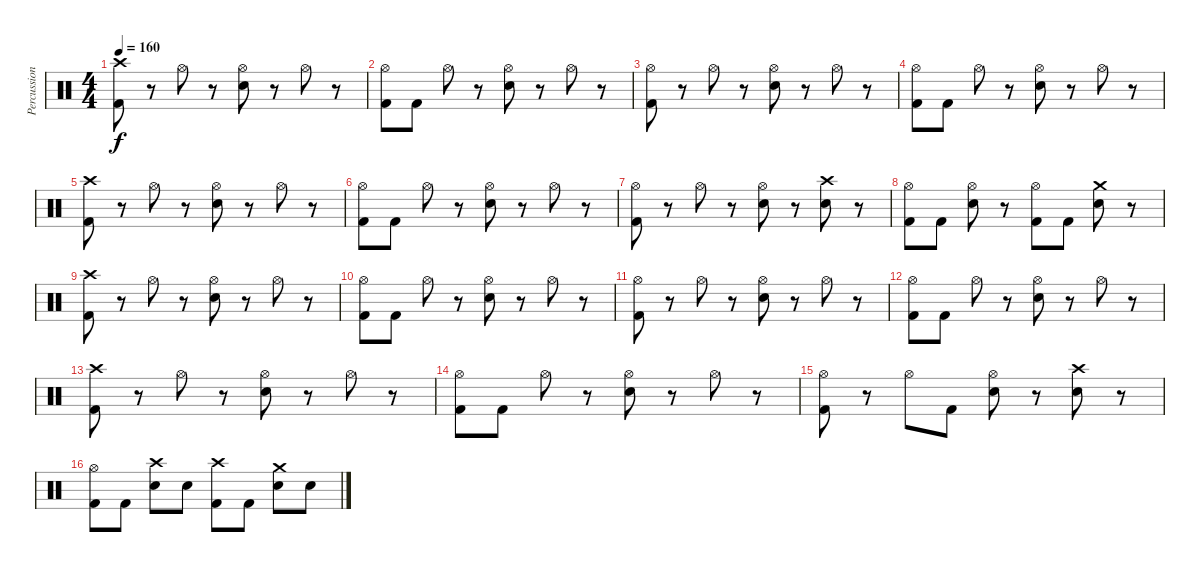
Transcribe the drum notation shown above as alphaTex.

\track ("Percussion" "Percussion") {instrument percussion}
\staff {score}
\articulation defaults
\ts (4 4)
\tempo 160
\clef neutral
\ks c
("Crash high (hit)" "Kick (hit) 2").8{dy f} r.8 "Hi-Hat (open)".8 r.8 ("Hi-Hat (open)" "Electric Snare (hit)").8 r.8 "Hi-Hat (open)".8 r.8 |
("Hi-Hat (open)" "Kick (hit) 2").8 "Kick (hit) 2".8 "Hi-Hat (open)".8 r.8 ("Hi-Hat (open)" "Electric Snare (hit)").8 r.8 "Hi-Hat (open)".8 r.8 |
("Hi-Hat (open)" "Kick (hit) 2").8 r.8 "Hi-Hat (open)".8 r.8 ("Hi-Hat (open)" "Electric Snare (hit)").8 r.8 "Hi-Hat (open)".8 r.8 |
("Hi-Hat (open)" "Kick (hit) 2").8 "Kick (hit) 2".8 "Hi-Hat (open)".8 r.8 ("Hi-Hat (open)" "Electric Snare (hit)").8 r.8 "Hi-Hat (open)".8 r.8 |
("Crash high (hit)" "Kick (hit) 2").8 r.8 "Hi-Hat (open)".8 r.8 ("Hi-Hat (open)" "Electric Snare (hit)").8 r.8 "Hi-Hat (open)".8 r.8 |
("Hi-Hat (open)" "Kick (hit) 2").8 "Kick (hit) 2".8 "Hi-Hat (open)".8 r.8 ("Hi-Hat (open)" "Electric Snare (hit)").8 r.8 "Hi-Hat (open)".8 r.8 |
("Hi-Hat (open)" "Kick (hit) 2").8 r.8 "Hi-Hat (open)".8 r.8 ("Hi-Hat (open)" "Electric Snare (hit)").8 r.8 ("Crash high (hit)" "Electric Snare (hit)").8 r.8 |
("Hi-Hat (open)" "Kick (hit) 2").8 "Kick (hit) 2".8 ("Hi-Hat (open)" "Electric Snare (hit)").8 r.8 ("Hi-Hat (open)" "Kick (hit) 2").8 "Kick (hit) 2".8 ("Crash medium (hit)" "Electric Snare (hit)").8 r.8 |
("Crash high (hit)" "Kick (hit) 2").8 r.8 "Hi-Hat (open)".8 r.8 ("Hi-Hat (open)" "Electric Snare (hit)").8 r.8 "Hi-Hat (open)".8 r.8 |
("Hi-Hat (open)" "Kick (hit) 2").8 "Kick (hit) 2".8 "Hi-Hat (open)".8 r.8 ("Hi-Hat (open)" "Electric Snare (hit)").8 r.8 "Hi-Hat (open)".8 r.8 |
("Hi-Hat (open)" "Kick (hit) 2").8 r.8 "Hi-Hat (open)".8 r.8 ("Hi-Hat (open)" "Electric Snare (hit)").8 r.8 "Hi-Hat (open)".8 r.8 |
("Hi-Hat (open)" "Kick (hit) 2").8 "Kick (hit) 2".8 "Hi-Hat (open)".8 r.8 ("Hi-Hat (open)" "Electric Snare (hit)").8 r.8 "Hi-Hat (open)".8 r.8 |
("Crash high (hit)" "Kick (hit) 2").8 r.8 "Hi-Hat (open)".8 r.8 ("Hi-Hat (open)" "Electric Snare (hit)").8 r.8 "Hi-Hat (open)".8 r.8 |
("Hi-Hat (open)" "Kick (hit) 2").8 "Kick (hit) 2".8 "Hi-Hat (open)".8 r.8 ("Hi-Hat (open)" "Electric Snare (hit)").8 r.8 "Hi-Hat (open)".8 r.8 |
("Hi-Hat (open)" "Kick (hit) 2").8 r.8 "Hi-Hat (open)".8 "Kick (hit) 2".8 ("Hi-Hat (open)" "Electric Snare (hit)").8 r.8 ("Crash high (hit)" "Electric Snare (hit)").8 r.8 |
("Hi-Hat (open)" "Kick (hit) 2").8 "Kick (hit) 2".8 ("Crash high (hit)" "Electric Snare (hit)").8 "Electric Snare (hit)".8 ("Crash high (hit)" "Kick (hit) 2").8 "Kick (hit) 2".8 ("Crash medium (hit)" "Electric Snare (hit)").8 "Electric Snare (hit)".8
